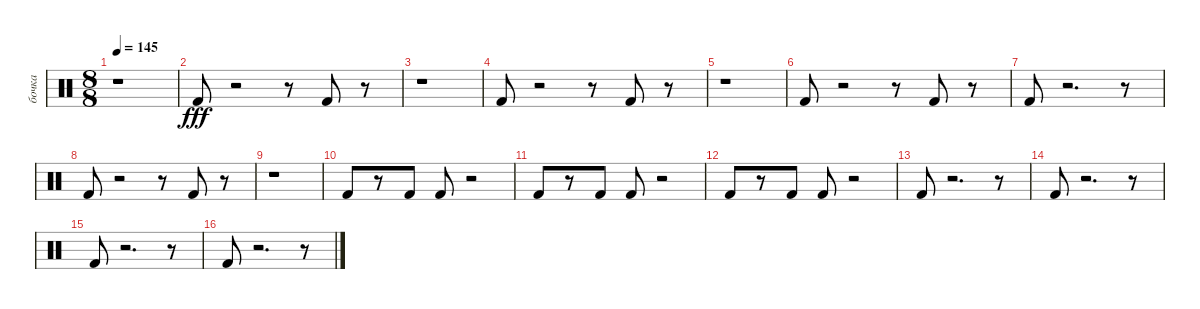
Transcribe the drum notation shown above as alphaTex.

\track ("бочка" "бочка") {instrument percussion}
\staff {score}
\articulation defaults
\ts (8 8)
\tempo 145
\clef neutral
\ks c
r.1{dy fff} |
"Kick (hit) 2".8 r.2 r.8 "Kick (hit) 2".8 r.8 |
r.1 |
"Kick (hit) 2".8 r.2 r.8 "Kick (hit) 2".8 r.8 |
r.1 |
"Kick (hit) 2".8 r.2 r.8 "Kick (hit) 2".8 r.8 |
"Kick (hit) 2".8 r.2{d} r.8 |
"Kick (hit) 2".8 r.2 r.8 "Kick (hit) 2".8 r.8 |
r.1 |
"Kick (hit) 2".8 r.8 "Kick (hit) 2".8 "Kick (hit) 2".8 r.2 |
"Kick (hit) 2".8 r.8 "Kick (hit) 2".8 "Kick (hit) 2".8 r.2 |
"Kick (hit) 2".8 r.8 "Kick (hit) 2".8 "Kick (hit) 2".8 r.2 |
"Kick (hit) 2".8 r.2{d} r.8 |
"Kick (hit) 2".8 r.2{d} r.8 |
"Kick (hit) 2".8 r.2{d} r.8 |
"Kick (hit) 2".8 r.2{d} r.8
